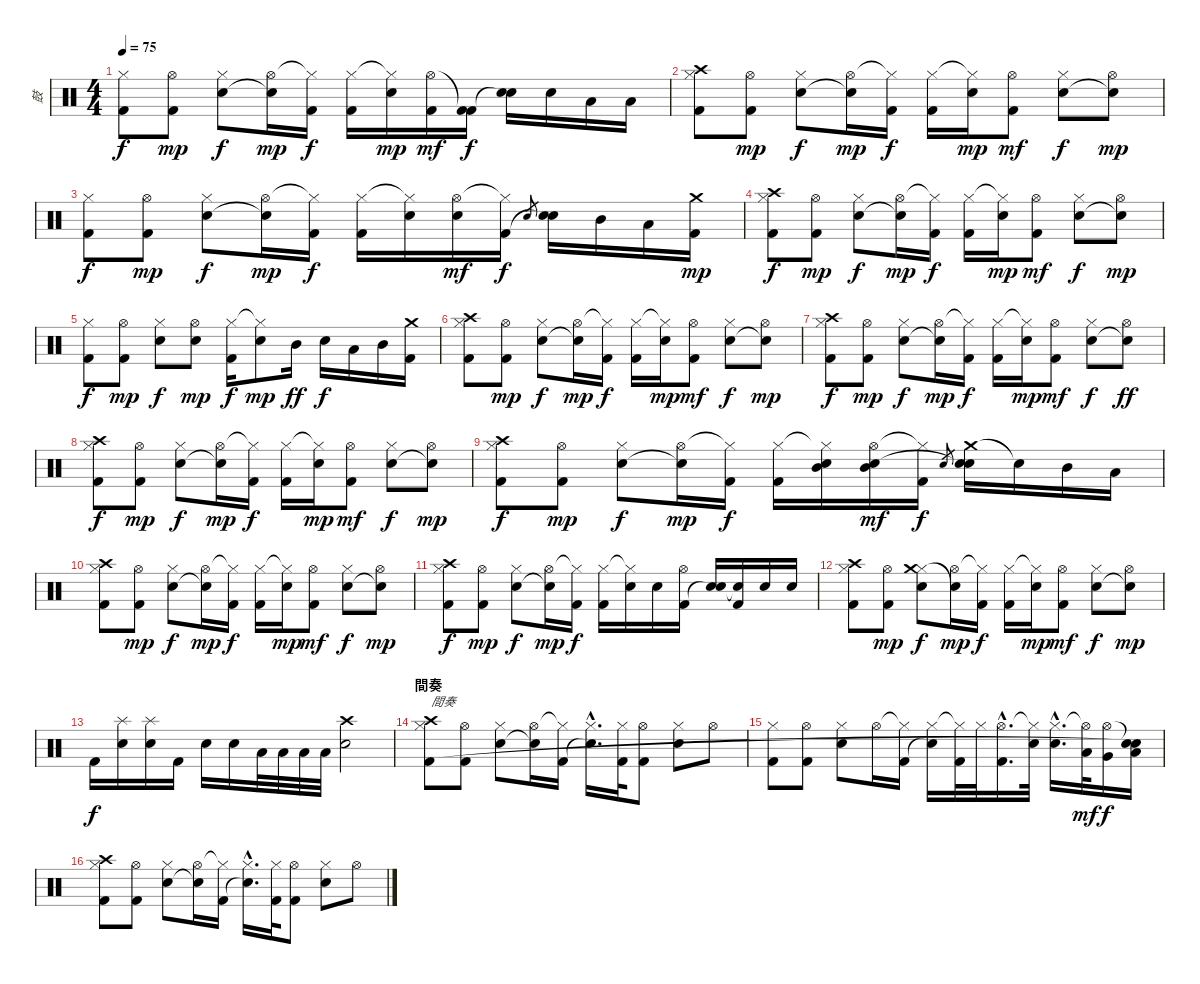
\track ("鼓" "鼓") {instrument percussion}
\staff {score}
\articulation defaults
\ts (4 4)
\tempo 75
\clef neutral
\ks c
("Hi-Hat (closed)" "Kick (hit) 2").8{dy f} ("Hi-Hat (open)" "Kick (hit) 2").8{dy mp} ("Hi-Hat (closed)" "Electric Snare (hit)").8{dy f} ("Hi-Hat (open)" "Snare (hit)"{t}).16{dy mp} ("Hi-Hat (closed)"{t} "Kick (hit) 2").16{dy f} ("Hi-Hat (closed)" "Kick (hit) 2").16 ("Hi-Hat (closed)"{t} "Electric Snare (hit)").16{dy mp} ("Hi-Hat (open)" "Kick (hit) 2").16{dy mf} ("Kick (hit) 2"{t} "Kick (hit) 2").16{dy f} ("Electric Snare (hit)" "Snare (hit)"{t}).16 "Electric Snare (hit)".16 "Low Tom (hit)".16 "Low Tom (hit)".16 |
\section ("" "")
("Hi-Hat (closed)" "Crash high (hit)" "Kick (hit) 2").8 ("Hi-Hat (open)" "Kick (hit) 2").8{dy mp} ("Hi-Hat (closed)" "Electric Snare (hit)").8{dy f} ("Hi-Hat (open)" "Snare (hit)"{t}).16{dy mp} ("Hi-Hat (closed)"{t} "Kick (hit) 2").16{dy f} ("Hi-Hat (closed)" "Kick (hit) 2").16 ("Hi-Hat (closed)"{t} "Electric Snare (hit)").16{dy mp} ("Hi-Hat (open)" "Kick (hit) 2").8{dy mf} ("Hi-Hat (closed)" "Electric Snare (hit)").8{dy f} ("Hi-Hat (open)" "Snare (hit)"{t}).8{dy mp} |
("Hi-Hat (closed)" "Kick (hit) 2").8{dy f} ("Hi-Hat (open)" "Kick (hit) 2").8{dy mp} ("Hi-Hat (closed)" "Electric Snare (hit)").8{dy f} ("Hi-Hat (open)" "Snare (hit)"{t}).16{dy mp} ("Hi-Hat (closed)"{t} "Kick (hit) 2").16{dy f} ("Hi-Hat (closed)" "Kick (hit) 2").16 ("Hi-Hat (closed)"{t} "Electric Snare (hit)").16 ("Hi-Hat (open)" "Electric Snare (hit)").16{dy mf} ("Hi-Hat (closed)"{t} "Kick (hit) 2").16{dy f} "Electric Snare (hit)".8{gr} ("Electric Snare (hit)" "Snare (hit)"{t}).16 "Mid Tom (hit)".16 "Low Tom (hit)".16 ("Crash medium (hit)" "Kick (hit) 2").16{dy mp} |
("Hi-Hat (closed)" "Crash high (hit)" "Kick (hit) 2").8{dy f} ("Hi-Hat (open)" "Kick (hit) 2").8{dy mp} ("Hi-Hat (closed)" "Electric Snare (hit)").8{dy f} ("Hi-Hat (open)" "Snare (hit)"{t}).16{dy mp} ("Hi-Hat (closed)"{t} "Kick (hit) 2").16{dy f} ("Hi-Hat (closed)" "Kick (hit) 2").16 ("Hi-Hat (closed)"{t} "Electric Snare (hit)").16{dy mp} ("Hi-Hat (open)" "Kick (hit) 2").8{dy mf} ("Hi-Hat (closed)" "Electric Snare (hit)").8{dy f} ("Hi-Hat (open)" "Snare (hit)"{t}).8{dy mp} |
("Hi-Hat (closed)" "Kick (hit) 2").8{dy f} ("Hi-Hat (open)" "Kick (hit) 2").8{dy mp} ("Hi-Hat (closed)" "Electric Snare (hit)").8{dy f} ("Hi-Hat (open)" "Electric Snare (hit)").8{dy mp} ("Hi-Hat (closed)" "Kick (hit) 2").16{dy f} ("Hi-Hat (closed)"{t} "Electric Snare (hit)").8{dy mp} "Mid Tom (hit)".16{dy ff} "Electric Snare (hit)".16{dy f} "Low Tom (hit)".16 "Mid Tom (hit)".16 ("Crash medium (hit)" "Kick (hit) 2").16 |
\section ("" "")
("Hi-Hat (closed)" "Crash high (hit)" "Kick (hit) 2").8 ("Hi-Hat (open)" "Kick (hit) 2").8{dy mp} ("Hi-Hat (closed)" "Electric Snare (hit)").8{dy f} ("Hi-Hat (open)" "Snare (hit)"{t}).16{dy mp} ("Hi-Hat (closed)"{t} "Kick (hit) 2").16{dy f} ("Hi-Hat (closed)" "Kick (hit) 2").16 ("Hi-Hat (closed)"{t} "Electric Snare (hit)").16{dy mp} ("Hi-Hat (open)" "Kick (hit) 2").8{dy mf} ("Hi-Hat (closed)" "Electric Snare (hit)").8{dy f} ("Hi-Hat (open)" "Snare (hit)"{t}).8{dy mp} |
("Hi-Hat (closed)" "Crash high (hit)" "Kick (hit) 2").8{dy f} ("Hi-Hat (open)" "Kick (hit) 2").8{dy mp} ("Hi-Hat (closed)" "Electric Snare (hit)").8{dy f} ("Hi-Hat (open)" "Snare (hit)"{t}).16{dy mp} ("Hi-Hat (closed)"{t} "Kick (hit) 2").16{dy f} ("Hi-Hat (closed)" "Kick (hit) 2").16 ("Hi-Hat (closed)"{t} "Electric Snare (hit)").16{dy mp} ("Hi-Hat (open)" "Kick (hit) 2").8{dy mf} ("Hi-Hat (closed)" "Electric Snare (hit)").8{dy f} ("Hi-Hat (open)" "Snare (hit)"{t}).8{dy ff} |
("Hi-Hat (closed)" "Crash high (hit)" "Kick (hit) 2").8{dy f} ("Hi-Hat (open)" "Kick (hit) 2").8{dy mp} ("Hi-Hat (closed)" "Electric Snare (hit)").8{dy f} ("Hi-Hat (open)" "Snare (hit)"{t}).16{dy mp} ("Hi-Hat (closed)"{t} "Kick (hit) 2").16{dy f} ("Hi-Hat (closed)" "Kick (hit) 2").16 ("Hi-Hat (closed)"{t} "Electric Snare (hit)").16{dy mp} ("Hi-Hat (open)" "Kick (hit) 2").8{dy mf} ("Hi-Hat (closed)" "Electric Snare (hit)").8{dy f} ("Hi-Hat (open)" "Snare (hit)"{t}).8{dy mp} |
("Hi-Hat (closed)" "Crash high (hit)" "Kick (hit) 2").8{dy f} ("Hi-Hat (open)" "Kick (hit) 2").8{dy mp} ("Hi-Hat (closed)" "Electric Snare (hit)").8{dy f} ("Hi-Hat (open)" "Snare (hit)"{t}).16{dy mp} ("Hi-Hat (closed)"{t} "Kick (hit) 2").16{dy f} ("Hi-Hat (closed)" "Kick (hit) 2").16 ("Hi-Hat (closed)"{t} "Mid Tom (hit)" "Electric Snare (hit)").16 ("Hi-Hat (open)" "Mid Tom (hit)" "Electric Snare (hit)").16{dy mf} ("Hi-Hat (closed)"{t} "Kick (hit) 2").16{dy f} "Electric Snare (hit)".8{gr} ("Crash medium (hit)" "Electric Snare (hit)" "Snare (hit)"{t}).16 "Snare (hit)"{t}.16 "Mid Tom (hit)".16 "Low Tom (hit)".16 |
("Hi-Hat (closed)" "Crash high (hit)" "Kick (hit) 2").8 ("Hi-Hat (open)" "Kick (hit) 2").8{dy mp} ("Hi-Hat (closed)" "Electric Snare (hit)").8{dy f} ("Hi-Hat (open)" "Snare (hit)"{t}).16{dy mp} ("Hi-Hat (closed)"{t} "Kick (hit) 2").16{dy f} ("Hi-Hat (closed)" "Kick (hit) 2").16 ("Hi-Hat (closed)"{t} "Electric Snare (hit)").16{dy mp} ("Hi-Hat (open)" "Kick (hit) 2").8{dy mf} ("Hi-Hat (closed)" "Electric Snare (hit)").8{dy f} ("Hi-Hat (open)" "Snare (hit)"{t}).8{dy mp} |
("Hi-Hat (closed)" "Crash high (hit)" "Kick (hit) 2").8{dy f} ("Hi-Hat (open)" "Kick (hit) 2").8{dy mp} ("Hi-Hat (closed)" "Electric Snare (hit)").8{dy f} ("Hi-Hat (open)" "Snare (hit)"{t}).16{dy mp} ("Hi-Hat (closed)"{t} "Kick (hit) 2").16{dy f} ("Hi-Hat (closed)" "Kick (hit) 2").16 ("Hi-Hat (closed)"{t} "Electric Snare (hit)").16 "Electric Snare (hit)".16 ("Hi-Hat (open)" "Kick (hit) 2").16 ("Electric Snare (hit)" "Snare (hit)"{t}).16 ("Snare (hit)"{t} "Kick (hit) 2").16 "Electric Snare (hit)".16 "Electric Snare (hit)".16 |
("Hi-Hat (closed)" "Crash high (hit)" "Kick (hit) 2").8 ("Hi-Hat (open)" "Kick (hit) 2").8{dy mp} ("Hi-Hat (closed)" "Crash medium (hit)" "Electric Snare (hit)").8{dy f} ("Hi-Hat (open)" "Snare (hit)"{t}).16{dy mp} ("Hi-Hat (closed)"{t} "Kick (hit) 2").16{dy f} ("Hi-Hat (closed)" "Kick (hit) 2").16 ("Hi-Hat (closed)"{t} "Electric Snare (hit)").16{dy mp} ("Hi-Hat (open)" "Kick (hit) 2").8{dy mf} ("Hi-Hat (closed)" "Electric Snare (hit)").8{dy f} ("Hi-Hat (open)" "Snare (hit)"{t}).8{dy mp} |
"Kick (hit) 2".16{dy f} ("Splash (hit)" "Electric Snare (hit)").16 ("Splash (hit)" "Electric Snare (hit)").16 "Kick (hit) 2".16 "Electric Snare (hit)".16 "Electric Snare (hit)".16 "Low Tom (hit)".32 "Low Tom (hit)".32 "Low Tom (hit)".32 "Low Tom (hit)".32 ("Crash high (hit)" "Electric Snare (hit)").2 |
\section ("" "間奏")
("Hi-Hat (closed)" "Crash high (hit)" "Kick (hit) 2").8{txt "間奏"} ("Hi-Hat (open)" "Kick (hit) 2").8 ("Hi-Hat (closed)" "Electric Snare (hit)").8 ("Hi-Hat (open)" "Snare (hit)"{t}).16 ("Hi-Hat (closed)"{t} "Kick (hit) 2").16 ("Hi-Hat (closed)"{hac} "Snare (hit)"{hac t}).16{d} ("Hi-Hat (closed)" "Kick (hit) 2").32 ("Hi-Hat (open)" "Kick (hit) 2").8 ("Hi-Hat (closed)" "Electric Snare (hit)").8 "Hi-Hat (open)".8 |
("Hi-Hat (closed)" "Kick (hit) 2").8 ("Hi-Hat (open)" "Kick (hit) 2").8 ("Hi-Hat (closed)" "Electric Snare (hit)").8 "Hi-Hat (open)".16 ("Hi-Hat (closed)"{t} "Kick (hit) 2").16 ("Hi-Hat (closed)" "Snare (hit)"{t}).16 ("Hi-Hat (closed)"{t} "Kick (hit) 2").32 "Hi-Hat (closed)".32 ("Hi-Hat (open)"{hac} "Kick (hit) 2"{hac}).16{d} ("Hi-Hat (closed)"{t} "Electric Snare (hit)").32 ("Hi-Hat (closed)"{hac} "Electric Snare (hit)"{hac}).16{d} ("Hi-Hat (open)"{t} "Low Tom (hit)").32{dy mf} ("Hi-Hat (open)" "Very Low Tom (hit)").16{dy f} ("Snare (hit)"{t} "Low Floor Tom (hit)" "Snare (hit)"{t}).16 |
("Hi-Hat (closed)" "Crash high (hit)" "Kick (hit) 2").8 ("Hi-Hat (open)" "Kick (hit) 2").8 ("Hi-Hat (closed)" "Electric Snare (hit)").8 ("Hi-Hat (open)" "Snare (hit)"{t}).16 ("Hi-Hat (closed)"{t} "Kick (hit) 2").16 ("Hi-Hat (closed)"{hac} "Snare (hit)"{hac t}).16{d} ("Hi-Hat (closed)" "Kick (hit) 2").32 ("Hi-Hat (open)" "Kick (hit) 2").8 ("Hi-Hat (closed)" "Electric Snare (hit)").8 "Hi-Hat (open)".8
